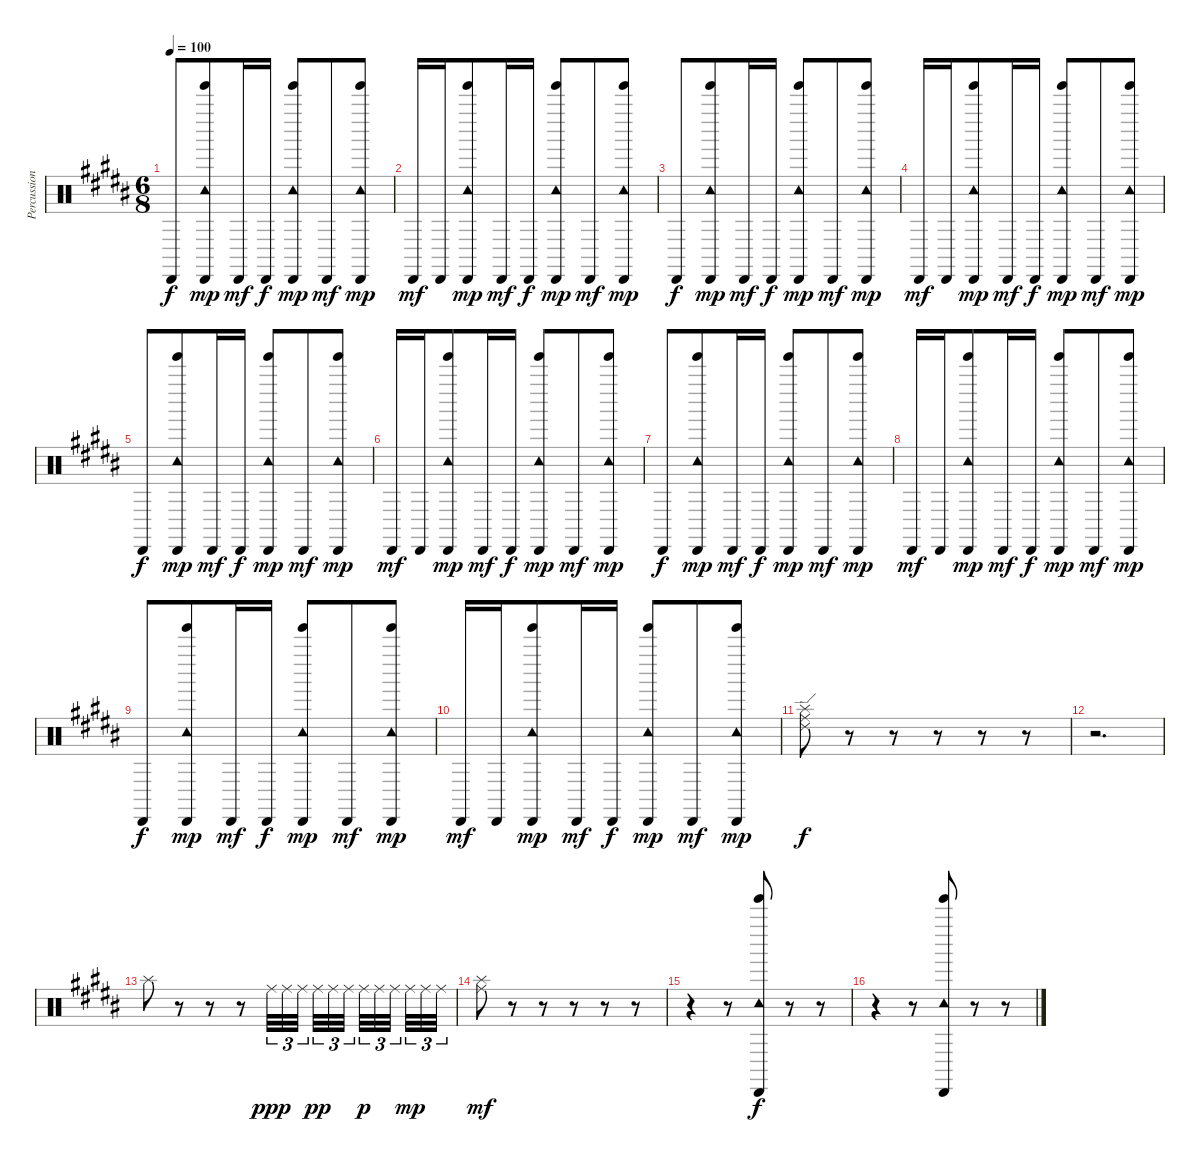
\track ("Percussion" "Percussion") {instrument percussion}
\staff {score}
\articulation defaults
\ts (6 8)
\tempo 100
\clef neutral
\ks b "Cabasa (hit)".8{dy f}
("Tinkle Bell (hit)" "Tambourine (hit)" "Cabasa (hit)").8{dy mp} "Cabasa (hit)".16{dy mf} "Cabasa (hit)".16{dy f} ("Tinkle Bell (hit)" "Tambourine (hit)" "Cabasa (hit)").8{dy mp} "Cabasa (hit)".8{dy mf} ("Tinkle Bell (hit)" "Tambourine (hit)" "Cabasa (hit)").8{dy mp} |
"Cabasa (hit)".16{dy mf} "Cabasa (hit)".16 ("Tinkle Bell (hit)" "Tambourine (hit)" "Cabasa (hit)").8{dy mp} "Cabasa (hit)".16{dy mf} "Cabasa (hit)".16{dy f} ("Tinkle Bell (hit)" "Tambourine (hit)" "Cabasa (hit)").8{dy mp} "Cabasa (hit)".8{dy mf} ("Tinkle Bell (hit)" "Tambourine (hit)" "Cabasa (hit)").8{dy mp} |
"Cabasa (hit)".8{dy f} ("Tinkle Bell (hit)" "Tambourine (hit)" "Cabasa (hit)").8{dy mp} "Cabasa (hit)".16{dy mf} "Cabasa (hit)".16{dy f} ("Tinkle Bell (hit)" "Tambourine (hit)" "Cabasa (hit)").8{dy mp} "Cabasa (hit)".8{dy mf} ("Tinkle Bell (hit)" "Tambourine (hit)" "Cabasa (hit)").8{dy mp} |
"Cabasa (hit)".16{dy mf} "Cabasa (hit)".16 ("Tinkle Bell (hit)" "Tambourine (hit)" "Cabasa (hit)").8{dy mp} "Cabasa (hit)".16{dy mf} "Cabasa (hit)".16{dy f} ("Tinkle Bell (hit)" "Tambourine (hit)" "Cabasa (hit)").8{dy mp} "Cabasa (hit)".8{dy mf} ("Tinkle Bell (hit)" "Tambourine (hit)" "Cabasa (hit)").8{dy mp} |
"Cabasa (hit)".8{dy f} ("Tinkle Bell (hit)" "Tambourine (hit)" "Cabasa (hit)").8{dy mp} "Cabasa (hit)".16{dy mf} "Cabasa (hit)".16{dy f} ("Tinkle Bell (hit)" "Tambourine (hit)" "Cabasa (hit)").8{dy mp} "Cabasa (hit)".8{dy mf} ("Tinkle Bell (hit)" "Tambourine (hit)" "Cabasa (hit)").8{dy mp} |
"Cabasa (hit)".16{dy mf} "Cabasa (hit)".16 ("Tinkle Bell (hit)" "Tambourine (hit)" "Cabasa (hit)").8{dy mp} "Cabasa (hit)".16{dy mf} "Cabasa (hit)".16{dy f} ("Tinkle Bell (hit)" "Tambourine (hit)" "Cabasa (hit)").8{dy mp} "Cabasa (hit)".8{dy mf} ("Tinkle Bell (hit)" "Tambourine (hit)" "Cabasa (hit)").8{dy mp} |
"Cabasa (hit)".8{dy f} ("Tinkle Bell (hit)" "Tambourine (hit)" "Cabasa (hit)").8{dy mp} "Cabasa (hit)".16{dy mf} "Cabasa (hit)".16{dy f} ("Tinkle Bell (hit)" "Tambourine (hit)" "Cabasa (hit)").8{dy mp} "Cabasa (hit)".8{dy mf} ("Tinkle Bell (hit)" "Tambourine (hit)" "Cabasa (hit)").8{dy mp} |
"Cabasa (hit)".16{dy mf} "Cabasa (hit)".16 ("Tinkle Bell (hit)" "Tambourine (hit)" "Cabasa (hit)").8{dy mp} "Cabasa (hit)".16{dy mf} "Cabasa (hit)".16{dy f} ("Tinkle Bell (hit)" "Tambourine (hit)" "Cabasa (hit)").8{dy mp} "Cabasa (hit)".8{dy mf} ("Tinkle Bell (hit)" "Tambourine (hit)" "Cabasa (hit)").8{dy mp} |
"Cabasa (hit)".8{dy f} ("Tinkle Bell (hit)" "Tambourine (hit)" "Cabasa (hit)").8{dy mp} "Cabasa (hit)".16{dy mf} "Cabasa (hit)".16{dy f} ("Tinkle Bell (hit)" "Tambourine (hit)" "Cabasa (hit)").8{dy mp} "Cabasa (hit)".8{dy mf} ("Tinkle Bell (hit)" "Tambourine (hit)" "Cabasa (hit)").8{dy mp} |
"Cabasa (hit)".16{dy mf} "Cabasa (hit)".16 ("Tinkle Bell (hit)" "Tambourine (hit)" "Cabasa (hit)").8{dy mp} "Cabasa (hit)".16{dy mf} "Cabasa (hit)".16{dy f} ("Tinkle Bell (hit)" "Tambourine (hit)" "Cabasa (hit)").8{dy mp} "Cabasa (hit)".8{dy mf} ("Tinkle Bell (hit)" "Tambourine (hit)" "Cabasa (hit)").8{dy mp} |
("Ride (middle)" "Ride (edge) 2" "Splash (hit)").8{dy f} r.8 r.8 r.8 r.8 r.8 |
r.2{d} |
"Splash (hit)".8 r.8 r.8 r.8 "Ride (middle)".32{tu (3 2) dy ppp} "Ride (middle)".32{tu (3 2)} "Ride (middle)".32{tu (3 2) beam splitsecondary} "Ride (middle)".32{tu (3 2) dy pp} "Ride (middle)".32{tu (3 2)} "Ride (middle)".32{tu (3 2) beam splitsecondary} "Ride (middle)".32{tu (3 2) dy p} "Ride (middle)".32{tu (3 2)} "Ride (middle)".32{tu (3 2) beam splitsecondary} "Ride (middle)".32{tu (3 2) dy mp} "Ride (middle)".32{tu (3 2)} "Ride (middle)".32{tu (3 2)} |
("Ride (middle)" "Splash (hit)").8{dy mf} r.8 r.8 r.8 r.8 r.8 |
r.4 r.8 ("Tambourine (hit)" "Cabasa (hit)" "Tinkle Bell (hit)").8{dy f} r.8 r.8 |
r.4 r.8 ("Tambourine (hit)" "Cabasa (hit)" "Tinkle Bell (hit)").8 r.8 r.8
